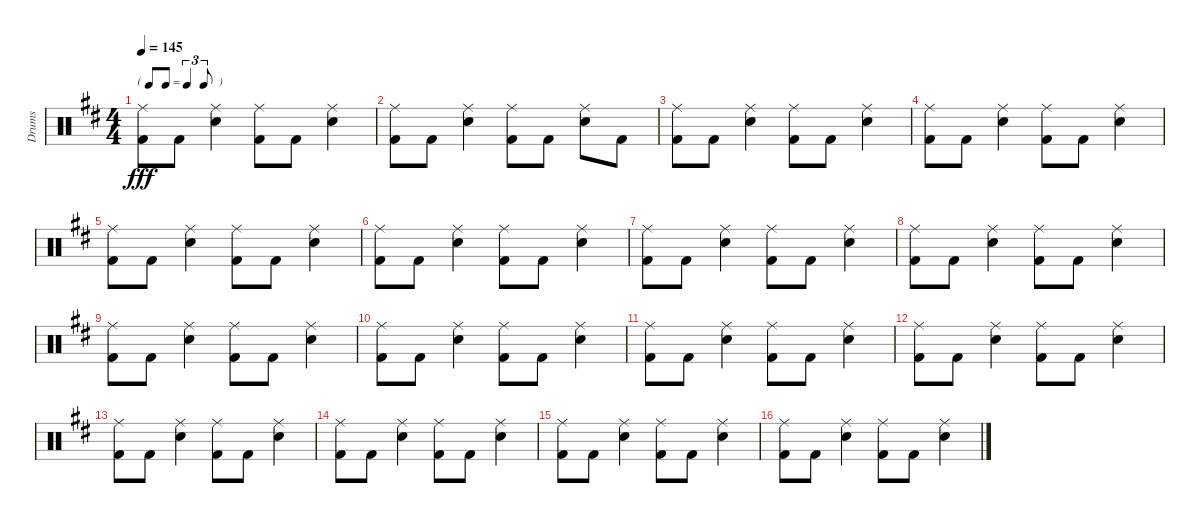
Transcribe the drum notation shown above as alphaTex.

\track ("Drums" "Drums") {instrument percussion}
\staff {score}
\articulation defaults
\ts (4 4)
\tf triplet8th
\tempo 145
\clef neutral
\ks d
("Ride (middle)" "Kick (hit) 2").8{dy fff} "Kick (hit) 2".8 ("Ride (middle)" "Snare (hit) 2").4 ("Ride (middle)" "Kick (hit) 2").8 "Kick (hit) 2".8 ("Ride (middle)" "Snare (hit) 2").4 |
("Ride (middle)" "Kick (hit) 2").8 "Kick (hit) 2".8 ("Ride (middle)" "Snare (hit) 2").4 ("Ride (middle)" "Kick (hit) 2").8 "Kick (hit) 2".8 ("Ride (middle)" "Snare (hit) 2").8 "Kick (hit) 2".8 |
("Ride (middle)" "Kick (hit) 2").8 "Kick (hit) 2".8 ("Ride (middle)" "Snare (hit) 2").4 ("Ride (middle)" "Kick (hit) 2").8 "Kick (hit) 2".8 ("Ride (middle)" "Snare (hit) 2").4 |
("Ride (middle)" "Kick (hit) 2").8 "Kick (hit) 2".8 ("Ride (middle)" "Snare (hit) 2").4 ("Ride (middle)" "Kick (hit) 2").8 "Kick (hit) 2".8 ("Ride (middle)" "Snare (hit) 2").4 |
("Ride (middle)" "Kick (hit) 2").8 "Kick (hit) 2".8 ("Ride (middle)" "Snare (hit) 2").4 ("Ride (middle)" "Kick (hit) 2").8 "Kick (hit) 2".8 ("Ride (middle)" "Snare (hit) 2").4 |
("Ride (middle)" "Kick (hit) 2").8 "Kick (hit) 2".8 ("Ride (middle)" "Snare (hit) 2").4 ("Ride (middle)" "Kick (hit) 2").8 "Kick (hit) 2".8 ("Ride (middle)" "Snare (hit) 2").4 |
("Ride (middle)" "Kick (hit) 2").8 "Kick (hit) 2".8 ("Ride (middle)" "Snare (hit) 2").4 ("Ride (middle)" "Kick (hit) 2").8 "Kick (hit) 2".8 ("Ride (middle)" "Snare (hit) 2").4 |
("Ride (middle)" "Kick (hit) 2").8 "Kick (hit) 2".8 ("Ride (middle)" "Snare (hit) 2").4 ("Ride (middle)" "Kick (hit) 2").8 "Kick (hit) 2".8 ("Ride (middle)" "Snare (hit) 2").4 |
("Ride (middle)" "Kick (hit) 2").8 "Kick (hit) 2".8 ("Ride (middle)" "Snare (hit) 2").4 ("Ride (middle)" "Kick (hit) 2").8 "Kick (hit) 2".8 ("Ride (middle)" "Snare (hit) 2").4 |
("Ride (middle)" "Kick (hit) 2").8 "Kick (hit) 2".8 ("Ride (middle)" "Snare (hit) 2").4 ("Ride (middle)" "Kick (hit) 2").8 "Kick (hit) 2".8 ("Ride (middle)" "Snare (hit) 2").4 |
("Ride (middle)" "Kick (hit) 2").8 "Kick (hit) 2".8 ("Ride (middle)" "Snare (hit) 2").4 ("Ride (middle)" "Kick (hit) 2").8 "Kick (hit) 2".8 ("Ride (middle)" "Snare (hit) 2").4 |
("Ride (middle)" "Kick (hit) 2").8 "Kick (hit) 2".8 ("Ride (middle)" "Snare (hit) 2").4 ("Ride (middle)" "Kick (hit) 2").8 "Kick (hit) 2".8 ("Ride (middle)" "Snare (hit) 2").4 |
("Ride (middle)" "Kick (hit) 2").8 "Kick (hit) 2".8 ("Ride (middle)" "Snare (hit) 2").4 ("Ride (middle)" "Kick (hit) 2").8 "Kick (hit) 2".8 ("Ride (middle)" "Snare (hit) 2").4 |
("Ride (middle)" "Kick (hit) 2").8 "Kick (hit) 2".8 ("Ride (middle)" "Snare (hit) 2").4 ("Ride (middle)" "Kick (hit) 2").8 "Kick (hit) 2".8 ("Ride (middle)" "Snare (hit) 2").4 |
("Ride (middle)" "Kick (hit) 2").8 "Kick (hit) 2".8 ("Ride (middle)" "Snare (hit) 2").4 ("Ride (middle)" "Kick (hit) 2").8 "Kick (hit) 2".8 ("Ride (middle)" "Snare (hit) 2").4 |
("Ride (middle)" "Kick (hit) 2").8 "Kick (hit) 2".8 ("Ride (middle)" "Snare (hit) 2").4 ("Ride (middle)" "Kick (hit) 2").8 "Kick (hit) 2".8 ("Ride (middle)" "Snare (hit) 2").4
